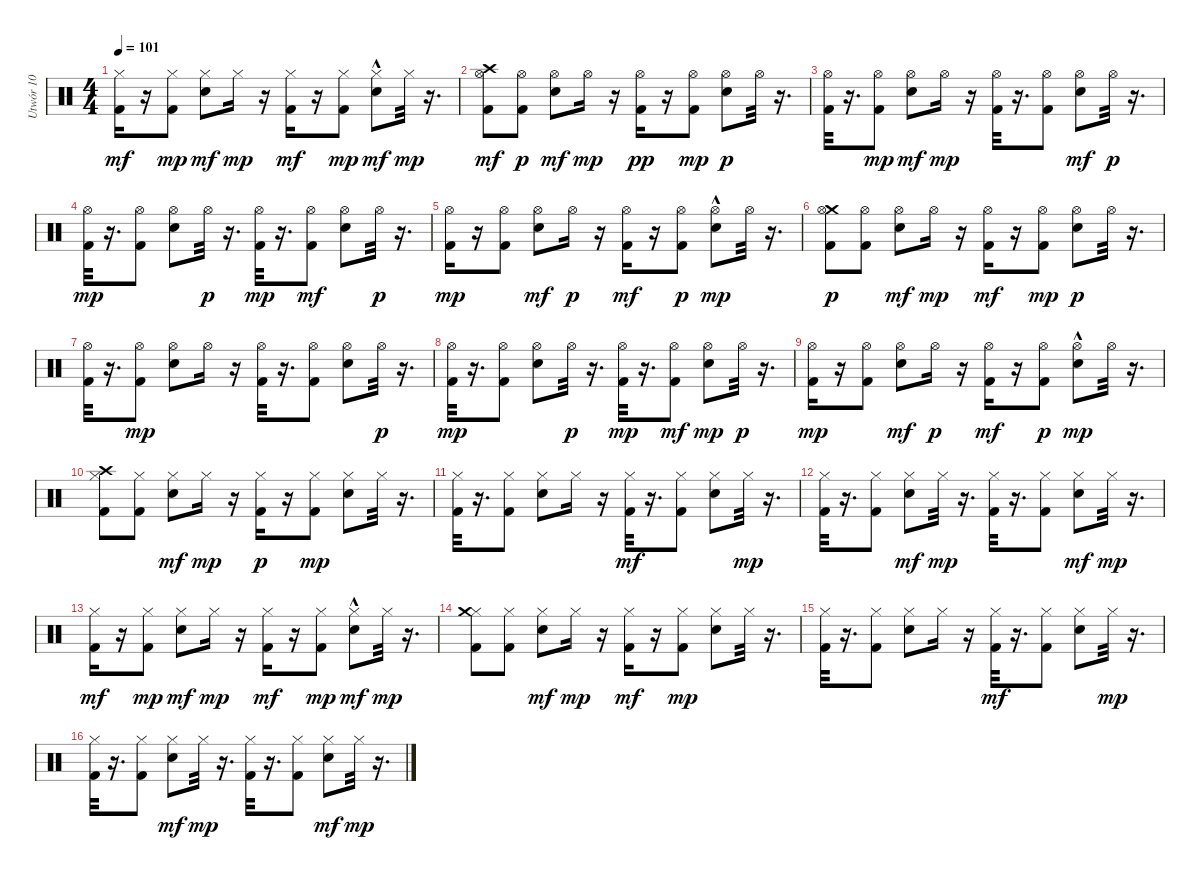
\track ("Utwór 10" "Utwór 10") {instrument percussion}
\staff {score}
\articulation defaults
\ts (4 4)
\tempo 101
\clef neutral
\ks c
("Kick (hit) 2" "Hi-Hat (closed)").16{dy mf} r.16 ("Kick (hit) 2" "Hi-Hat (closed)").8{dy mp} ("Snare (hit) 2" "Hi-Hat (closed)").8{dy mf} "Hi-Hat (closed)".16{dy mp} r.16 ("Kick (hit) 2" "Hi-Hat (closed)").16{dy mf} r.16 ("Kick (hit) 2" "Hi-Hat (closed)").8{dy mp} ("Hi-Hat (closed)" "Snare (hit) 2"{hac}).8{dy mf} "Hi-Hat (closed)".32{dy mp} r.16{d} |
("Hi-Hat (open)" "Crash high (hit)" "Kick (hit) 2").8{dy mf} ("Kick (hit) 2" "Hi-Hat (open)").8{dy p} ("Hi-Hat (open)" "Snare (hit) 2").8{dy mf} "Hi-Hat (open)".16{dy mp} r.16 ("Kick (hit) 2" "Hi-Hat (open)").16{dy pp} r.16 ("Kick (hit) 2" "Hi-Hat (open)").8{dy mp} ("Hi-Hat (open)" "Snare (hit) 2").8{dy p} "Hi-Hat (open)".32 r.16{d} |
("Hi-Hat (open)" "Kick (hit) 2").32 r.16{d} ("Kick (hit) 2" "Hi-Hat (open)").8{dy mp} ("Hi-Hat (open)" "Snare (hit) 2").8{dy mf} "Hi-Hat (open)".16{dy mp} r.16 ("Kick (hit) 2" "Hi-Hat (open)").32 r.16{d} ("Kick (hit) 2" "Hi-Hat (open)").8 ("Hi-Hat (open)" "Snare (hit) 2").8{dy mf} "Hi-Hat (open)".32{dy p} r.16{d} |
("Hi-Hat (open)" "Kick (hit) 2").32{dy mp} r.16{d} ("Kick (hit) 2" "Hi-Hat (open)").8 ("Hi-Hat (open)" "Snare (hit) 2").8 "Hi-Hat (open)".32{dy p} r.16{d} ("Kick (hit) 2" "Hi-Hat (open)").32{dy mp} r.16{d} ("Hi-Hat (open)" "Kick (hit) 2").8{dy mf} ("Hi-Hat (open)" "Snare (hit) 2").8 "Hi-Hat (open)".32{dy p} r.16{d} |
("Hi-Hat (open)" "Kick (hit) 2").16{dy mp} r.16 ("Kick (hit) 2" "Hi-Hat (open)").8 ("Hi-Hat (open)" "Snare (hit) 2").8{dy mf} "Hi-Hat (open)".16{dy p} r.16 ("Hi-Hat (open)" "Kick (hit) 2").16{dy mf} r.16 ("Kick (hit) 2" "Hi-Hat (open)").8{dy p} ("Snare (hit) 2"{hac} "Hi-Hat (open)").8{dy mp} "Hi-Hat (open)".32 r.16{d} |
("Crash medium (hit)" "Kick (hit) 2" "Hi-Hat (open)").8{dy p} ("Hi-Hat (open)" "Kick (hit) 2").8 ("Hi-Hat (open)" "Snare (hit) 2").8{dy mf} "Hi-Hat (open)".16{dy mp} r.16 ("Hi-Hat (open)" "Kick (hit) 2").16{dy mf} r.16 ("Hi-Hat (open)" "Kick (hit) 2").8{dy mp} ("Snare (hit) 2" "Hi-Hat (open)").8{dy p} "Hi-Hat (open)".32 r.16{d} |
("Kick (hit) 2" "Hi-Hat (open)").32 r.16{d} ("Hi-Hat (open)" "Kick (hit) 2").8{dy mp} ("Snare (hit) 2" "Hi-Hat (open)").8 "Hi-Hat (open)".16 r.16 ("Kick (hit) 2" "Hi-Hat (open)").32 r.16{d} ("Kick (hit) 2" "Hi-Hat (open)").8 ("Snare (hit) 2" "Hi-Hat (open)").8 "Hi-Hat (open)".32{dy p} r.16{d} |
("Kick (hit) 2" "Hi-Hat (open)").32{dy mp} r.16{d} ("Hi-Hat (open)" "Kick (hit) 2").8 ("Snare (hit) 2" "Hi-Hat (open)").8 "Hi-Hat (open)".32{dy p} r.16{d} ("Kick (hit) 2" "Hi-Hat (open)").32{dy mp} r.16{d} ("Hi-Hat (open)" "Kick (hit) 2").8{dy mf} ("Snare (hit) 2" "Hi-Hat (open)").8{dy mp} "Hi-Hat (open)".32{dy p} r.16{d} |
("Kick (hit) 2" "Hi-Hat (open)").16{dy mp} r.16 ("Hi-Hat (open)" "Kick (hit) 2").8 ("Hi-Hat (open)" "Snare (hit) 2").8{dy mf} "Hi-Hat (open)".16{dy p} r.16 ("Hi-Hat (open)" "Kick (hit) 2").16{dy mf} r.16 ("Hi-Hat (open)" "Kick (hit) 2").8{dy p} ("Hi-Hat (open)" "Snare (hit) 2"{hac}).8{dy mp} "Hi-Hat (open)".32 r.16{d} |
("Crash high (hit)" "Kick (hit) 2" "Hi-Hat (closed)").8 ("Hi-Hat (closed)" "Kick (hit) 2").8 ("Hi-Hat (closed)" "Snare (hit) 2").8{dy mf} "Hi-Hat (closed)".16{dy mp} r.16 ("Kick (hit) 2" "Hi-Hat (closed)").16{dy p} r.16 ("Hi-Hat (closed)" "Kick (hit) 2").8{dy mp} ("Hi-Hat (closed)" "Snare (hit) 2").8 "Hi-Hat (closed)".32 r.16{d} |
("Hi-Hat (closed)" "Kick (hit) 2").32 r.16{d} ("Kick (hit) 2" "Hi-Hat (closed)").8 ("Snare (hit) 2" "Hi-Hat (closed)").8 "Hi-Hat (closed)".16 r.16 ("Kick (hit) 2" "Hi-Hat (closed)").32{dy mf} r.16{d} ("Kick (hit) 2" "Hi-Hat (closed)").8 ("Hi-Hat (closed)" "Snare (hit) 2").8 "Hi-Hat (closed)".32{dy mp} r.16{d} |
("Hi-Hat (closed)" "Kick (hit) 2").32 r.16{d} ("Hi-Hat (closed)" "Kick (hit) 2").8 ("Snare (hit) 2" "Hi-Hat (closed)").8{dy mf} "Hi-Hat (closed)".32{dy mp} r.16{d} ("Kick (hit) 2" "Hi-Hat (closed)").32 r.16{d} ("Kick (hit) 2" "Hi-Hat (closed)").8 ("Hi-Hat (closed)" "Snare (hit) 2").8{dy mf} "Hi-Hat (closed)".32{dy mp} r.16{d} |
("Kick (hit) 2" "Hi-Hat (closed)").16{dy mf} r.16 ("Kick (hit) 2" "Hi-Hat (closed)").8{dy mp} ("Hi-Hat (closed)" "Snare (hit) 2").8{dy mf} "Hi-Hat (closed)".16{dy mp} r.16 ("Kick (hit) 2" "Hi-Hat (closed)").16{dy mf} r.16 ("Kick (hit) 2" "Hi-Hat (closed)").8{dy mp} ("Snare (hit) 2"{hac} "Hi-Hat (closed)").8{dy mf} "Hi-Hat (closed)".32{dy mp} r.16{d} |
("Kick (hit) 2" "Hi-Hat (closed)" "Crash medium (hit)").8 ("Hi-Hat (closed)" "Kick (hit) 2").8 ("Hi-Hat (closed)" "Snare (hit) 2").8{dy mf} "Hi-Hat (closed)".16{dy mp} r.16 ("Hi-Hat (closed)" "Kick (hit) 2").16{dy mf} r.16 ("Hi-Hat (closed)" "Kick (hit) 2").8{dy mp} ("Snare (hit) 2" "Hi-Hat (closed)").8 "Hi-Hat (closed)".32 r.16{d} |
("Kick (hit) 2" "Hi-Hat (closed)").32 r.16{d} ("Hi-Hat (closed)" "Kick (hit) 2").8 ("Snare (hit) 2" "Hi-Hat (closed)").8 "Hi-Hat (closed)".16 r.16 ("Hi-Hat (closed)" "Kick (hit) 2").32{dy mf} r.16{d} ("Hi-Hat (closed)" "Kick (hit) 2").8 ("Snare (hit) 2" "Hi-Hat (closed)").8 "Hi-Hat (closed)".32{dy mp} r.16{d} |
("Hi-Hat (closed)" "Kick (hit) 2").32 r.16{d} ("Hi-Hat (closed)" "Kick (hit) 2").8 ("Hi-Hat (closed)" "Snare (hit) 2").8{dy mf} "Hi-Hat (closed)".32{dy mp} r.16{d} ("Hi-Hat (closed)" "Kick (hit) 2").32 r.16{d} ("Kick (hit) 2" "Hi-Hat (closed)").8 ("Hi-Hat (closed)" "Snare (hit) 2").8{dy mf} "Hi-Hat (closed)".32{dy mp} r.16{d}
